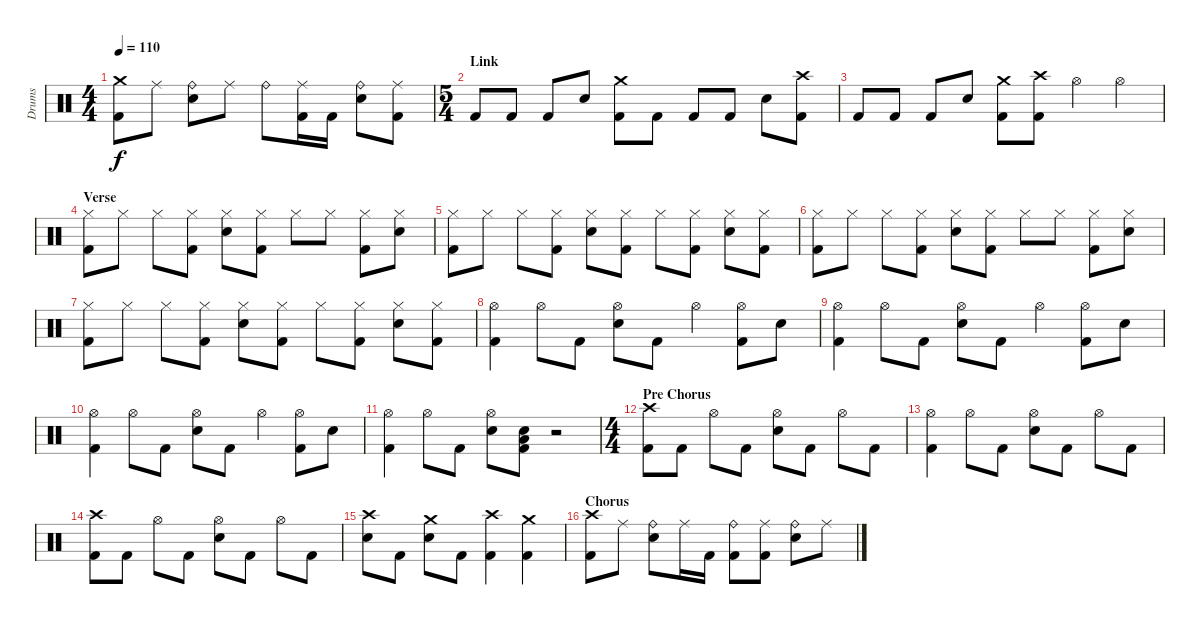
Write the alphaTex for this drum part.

\track ("Drums" "Drums") {instrument percussion}
\staff {score}
\articulation defaults
\ts (4 4)
\tempo 110
\clef neutral
\ks c
("Crash medium (hit)" "Kick (hit) 2").8{dy f} "Ride (middle)".8 ("Ride (bell)" "Electric Snare (hit)").8 "Ride (middle)".8 "Ride (bell)".8 ("Ride (middle)" "Kick (hit) 2").16 "Kick (hit) 2".16 ("Ride (bell)" "Electric Snare (hit)").8 ("Ride (middle)" "Kick (hit) 2").8 |
\ts (5 4)
\section ("" "Link")
"Kick (hit) 2".8 "Kick (hit) 2".8 "Kick (hit) 2".8 "Electric Snare (hit)".8 ("Crash medium (hit)" "Kick (hit) 2").8 "Kick (hit) 2".8 "Kick (hit) 2".8 "Kick (hit) 2".8 "Electric Snare (hit)".8 ("Crash high (hit)" "Kick (hit) 2").8 |
"Kick (hit) 2".8 "Kick (hit) 2".8 "Kick (hit) 2".8 "Electric Snare (hit)".8 ("Crash medium (hit)" "Kick (hit) 2").8 ("Crash high (hit)" "Kick (hit) 2").8 "Hi-Hat (open)".4 "Hi-Hat (open)".4 |
\section ("" "Verse")
("Hi-Hat (closed)" "Kick (hit) 2").8 "Hi-Hat (closed)".8 "Hi-Hat (closed)".8 ("Hi-Hat (closed)" "Kick (hit) 2").8 ("Hi-Hat (closed)" "Electric Snare (hit)").8 ("Hi-Hat (closed)" "Kick (hit) 2").8 "Hi-Hat (closed)".8 "Hi-Hat (closed)".8 ("Hi-Hat (closed)" "Kick (hit) 2").8 ("Hi-Hat (closed)" "Electric Snare (hit)").8 |
("Hi-Hat (closed)" "Kick (hit) 2").8 "Hi-Hat (closed)".8 "Hi-Hat (closed)".8 ("Hi-Hat (closed)" "Kick (hit) 2").8 ("Hi-Hat (closed)" "Electric Snare (hit)").8 ("Hi-Hat (closed)" "Kick (hit) 2").8 "Hi-Hat (closed)".8 ("Hi-Hat (closed)" "Kick (hit) 2").8 ("Hi-Hat (closed)" "Electric Snare (hit)").8 ("Hi-Hat (closed)" "Kick (hit) 2").8 |
("Hi-Hat (closed)" "Kick (hit) 2").8 "Hi-Hat (closed)".8 "Hi-Hat (closed)".8 ("Hi-Hat (closed)" "Kick (hit) 2").8 ("Hi-Hat (closed)" "Electric Snare (hit)").8 ("Hi-Hat (closed)" "Kick (hit) 2").8 "Hi-Hat (closed)".8 "Hi-Hat (closed)".8 ("Hi-Hat (closed)" "Kick (hit) 2").8 ("Hi-Hat (closed)" "Electric Snare (hit)").8 |
("Hi-Hat (closed)" "Kick (hit) 2").8 "Hi-Hat (closed)".8 "Hi-Hat (closed)".8 ("Hi-Hat (closed)" "Kick (hit) 2").8 ("Hi-Hat (closed)" "Electric Snare (hit)").8 ("Hi-Hat (closed)" "Kick (hit) 2").8 "Hi-Hat (closed)".8 ("Hi-Hat (closed)" "Kick (hit) 2").8 ("Hi-Hat (closed)" "Electric Snare (hit)").8 ("Hi-Hat (closed)" "Kick (hit) 2").8 |
("Hi-Hat (open)" "Kick (hit) 2").4 "Hi-Hat (open)".8 "Kick (hit) 2".8 ("Hi-Hat (open)" "Electric Snare (hit)").8 "Kick (hit) 2".8 "Hi-Hat (open)".4 ("Hi-Hat (open)" "Kick (hit) 2").8 "Electric Snare (hit)".8 |
("Hi-Hat (open)" "Kick (hit) 2").4 "Hi-Hat (open)".8 "Kick (hit) 2".8 ("Hi-Hat (open)" "Electric Snare (hit)").8 "Kick (hit) 2".8 "Hi-Hat (open)".4 ("Hi-Hat (open)" "Kick (hit) 2").8 "Electric Snare (hit)".8 |
("Hi-Hat (open)" "Kick (hit) 2").4 "Hi-Hat (open)".8 "Kick (hit) 2".8 ("Hi-Hat (open)" "Electric Snare (hit)").8 "Kick (hit) 2".8 "Hi-Hat (open)".4 ("Hi-Hat (open)" "Kick (hit) 2").8 "Electric Snare (hit)".8 |
("Hi-Hat (open)" "Kick (hit) 2").4 "Hi-Hat (open)".8 "Kick (hit) 2".8 ("Hi-Hat (open)" "Electric Snare (hit)").8 ("Electric Snare (hit)" "Low Floor Tom (hit)" "Kick (hit) 2").8 r.2 |
\ts (4 4)
\section ("" "Pre Chorus")
("Crash high (hit)" "Kick (hit) 2").8 "Kick (hit) 2".8 "Hi-Hat (open)".8 "Kick (hit) 2".8 ("Hi-Hat (open)" "Electric Snare (hit)").8 "Kick (hit) 2".8 "Hi-Hat (open)".8 "Kick (hit) 2".8 |
("Hi-Hat (open)" "Kick (hit) 2").4 "Hi-Hat (open)".8 "Kick (hit) 2".8 ("Hi-Hat (open)" "Electric Snare (hit)").8 "Kick (hit) 2".8 "Hi-Hat (open)".8 "Kick (hit) 2".8 |
("Crash high (hit)" "Kick (hit) 2").8 "Kick (hit) 2".8 "Hi-Hat (open)".8 "Kick (hit) 2".8 ("Hi-Hat (open)" "Electric Snare (hit)").8 "Kick (hit) 2".8 "Hi-Hat (open)".8 "Kick (hit) 2".8 |
("Crash high (hit)" "Electric Snare (hit)").8 "Kick (hit) 2".8 ("Crash medium (hit)" "Electric Snare (hit)").8 "Kick (hit) 2".8 ("Crash high (hit)" "Kick (hit) 2").4 ("Crash medium (hit)" "Kick (hit) 2").4 |
\section ("" "Chorus")
("Crash high (hit)" "Kick (hit) 2").8 "Ride (middle)".8 ("Ride (bell)" "Electric Snare (hit)").8 "Ride (middle)".16 "Kick (hit) 2".16 ("Ride (bell)" "Kick (hit) 2").8 ("Ride (middle)" "Kick (hit) 2").8 ("Ride (bell)" "Electric Snare (hit)").8 "Ride (middle)".8
